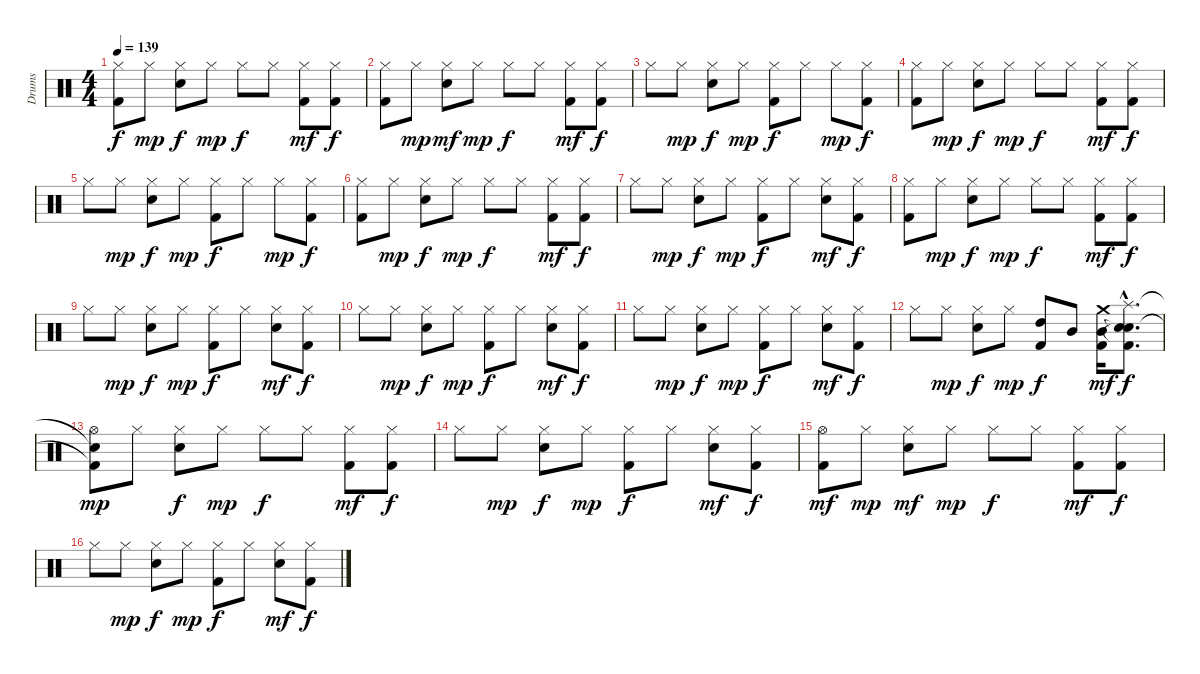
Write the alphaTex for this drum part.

\track ("Drums" "Drums") {instrument percussion}
\staff {score}
\articulation defaults
\ts (4 4)
\tempo 139
\clef neutral
\ks c
("Hi-Hat (closed)" "Kick (hit) 2").8{dy f} "Hi-Hat (closed)".8{dy mp} ("Hi-Hat (closed)" "Snare (hit) 2").8{dy f} "Hi-Hat (closed)".8{dy mp} "Hi-Hat (closed)".8{dy f} "Hi-Hat (closed)".8 ("Hi-Hat (closed)" "Kick (hit) 2").8{dy mf} ("Hi-Hat (closed)" "Kick (hit) 2").8{dy f} |
("Hi-Hat (closed)" "Kick (hit) 2").8 "Hi-Hat (closed)".8{dy mp} ("Hi-Hat (closed)" "Snare (hit) 2").8{dy mf} "Hi-Hat (closed)".8{dy mp} "Hi-Hat (closed)".8{dy f} "Hi-Hat (closed)".8 ("Hi-Hat (closed)" "Kick (hit) 2").8{dy mf} ("Hi-Hat (closed)" "Kick (hit) 2").8{dy f} |
"Hi-Hat (closed)".8 "Hi-Hat (closed)".8{dy mp} ("Hi-Hat (closed)" "Snare (hit) 2").8{dy f} "Hi-Hat (closed)".8{dy mp} ("Hi-Hat (closed)" "Kick (hit) 2").8{dy f} "Hi-Hat (closed)".8 "Hi-Hat (closed)".8{dy mp} ("Hi-Hat (closed)" "Kick (hit) 2").8{dy f} |
("Hi-Hat (closed)" "Kick (hit) 2").8 "Hi-Hat (closed)".8{dy mp} ("Hi-Hat (closed)" "Snare (hit) 2").8{dy f} "Hi-Hat (closed)".8{dy mp} "Hi-Hat (closed)".8{dy f} "Hi-Hat (closed)".8 ("Hi-Hat (closed)" "Kick (hit) 2").8{dy mf} ("Hi-Hat (closed)" "Kick (hit) 2").8{dy f} |
"Hi-Hat (closed)".8 "Hi-Hat (closed)".8{dy mp} ("Hi-Hat (closed)" "Snare (hit) 2").8{dy f} "Hi-Hat (closed)".8{dy mp} ("Hi-Hat (closed)" "Kick (hit) 2").8{dy f} "Hi-Hat (closed)".8 "Hi-Hat (closed)".8{dy mp} ("Hi-Hat (closed)" "Kick (hit) 2").8{dy f} |
("Hi-Hat (closed)" "Kick (hit) 2").8 "Hi-Hat (closed)".8{dy mp} ("Hi-Hat (closed)" "Snare (hit) 2").8{dy f} "Hi-Hat (closed)".8{dy mp} "Hi-Hat (closed)".8{dy f} "Hi-Hat (closed)".8 ("Hi-Hat (closed)" "Kick (hit) 2").8{dy mf} ("Hi-Hat (closed)" "Kick (hit) 2").8{dy f} |
"Hi-Hat (closed)".8 "Hi-Hat (closed)".8{dy mp} ("Hi-Hat (closed)" "Snare (hit) 2").8{dy f} "Hi-Hat (closed)".8{dy mp} ("Hi-Hat (closed)" "Kick (hit) 2").8{dy f} "Hi-Hat (closed)".8 ("Hi-Hat (closed)" "Snare (hit) 2").8{dy mf} ("Hi-Hat (closed)" "Kick (hit) 2").8{dy f} |
("Hi-Hat (closed)" "Kick (hit) 2").8 "Hi-Hat (closed)".8{dy mp} ("Hi-Hat (closed)" "Snare (hit) 2").8{dy f} "Hi-Hat (closed)".8{dy mp} "Hi-Hat (closed)".8{dy f} "Hi-Hat (closed)".8 ("Hi-Hat (closed)" "Kick (hit) 2").8{dy mf} ("Hi-Hat (closed)" "Kick (hit) 2").8{dy f} |
"Hi-Hat (closed)".8 "Hi-Hat (closed)".8{dy mp} ("Hi-Hat (closed)" "Snare (hit) 2").8{dy f} "Hi-Hat (closed)".8{dy mp} ("Hi-Hat (closed)" "Kick (hit) 2").8{dy f} "Hi-Hat (closed)".8 ("Hi-Hat (closed)" "Snare (hit) 2").8{dy mf} ("Hi-Hat (closed)" "Kick (hit) 2").8{dy f} |
"Hi-Hat (closed)".8 "Hi-Hat (closed)".8{dy mp} ("Hi-Hat (closed)" "Snare (hit) 2").8{dy f} "Hi-Hat (closed)".8{dy mp} ("Hi-Hat (closed)" "Kick (hit) 2").8{dy f} "Hi-Hat (closed)".8 ("Hi-Hat (closed)" "Snare (hit) 2").8{dy mf} ("Hi-Hat (closed)" "Kick (hit) 2").8{dy f} |
"Hi-Hat (closed)".8 "Hi-Hat (closed)".8{dy mp} ("Hi-Hat (closed)" "Snare (hit) 2").8{dy f} "Hi-Hat (closed)".8{dy mp} ("Hi-Hat (closed)" "Kick (hit) 2").8{dy f} "Hi-Hat (closed)".8 ("Hi-Hat (closed)" "Snare (hit) 2").8{dy mf} ("Hi-Hat (closed)" "Kick (hit) 2").8{dy f} |
"Hi-Hat (closed)".8 "Hi-Hat (closed)".8{dy mp} ("Hi-Hat (closed)" "Snare (hit) 2").8{dy f} "Hi-Hat (closed)".8{dy mp} ("High Tom (hit)" "Kick (hit) 2").8{dy f} "Mid Tom (hit)".8 ("Crash medium (hit)" "Mid Tom (hit)" "Kick (hit) 2").16{dy mf} ("Splash (hit)"{hac} "Snare (hit)"{hac t} "Snare (hit)"{hac t} "Kick (hit) 2"{hac}).8{d dy f} |
("Snare (hit)"{t} "Hi-Hat (open)" "Kick (hit) 2"{t}).8{dy mp} "Hi-Hat (closed)".8 ("Hi-Hat (closed)" "Snare (hit) 2").8{dy f} "Hi-Hat (closed)".8{dy mp} "Hi-Hat (closed)".8{dy f} "Hi-Hat (closed)".8 ("Hi-Hat (closed)" "Kick (hit) 2").8{dy mf} ("Hi-Hat (closed)" "Kick (hit) 2").8{dy f} |
"Hi-Hat (closed)".8 "Hi-Hat (closed)".8{dy mp} ("Hi-Hat (closed)" "Snare (hit) 2").8{dy f} "Hi-Hat (closed)".8{dy mp} ("Hi-Hat (closed)" "Kick (hit) 2").8{dy f} "Hi-Hat (closed)".8 ("Hi-Hat (closed)" "Snare (hit) 2").8{dy mf} ("Hi-Hat (closed)" "Kick (hit) 2").8{dy f} |
("Hi-Hat (open)" "Kick (hit) 2").8{dy mf} "Hi-Hat (closed)".8{dy mp} ("Hi-Hat (closed)" "Snare (hit) 2").8{dy mf} "Hi-Hat (closed)".8{dy mp} "Hi-Hat (closed)".8{dy f} "Hi-Hat (closed)".8 ("Hi-Hat (closed)" "Kick (hit) 2").8{dy mf} ("Hi-Hat (closed)" "Kick (hit) 2").8{dy f} |
"Hi-Hat (closed)".8 "Hi-Hat (closed)".8{dy mp} ("Hi-Hat (closed)" "Snare (hit) 2").8{dy f} "Hi-Hat (closed)".8{dy mp} ("Hi-Hat (closed)" "Kick (hit) 2").8{dy f} "Hi-Hat (closed)".8 ("Hi-Hat (closed)" "Snare (hit) 2").8{dy mf} ("Hi-Hat (closed)" "Kick (hit) 2").8{dy f}
